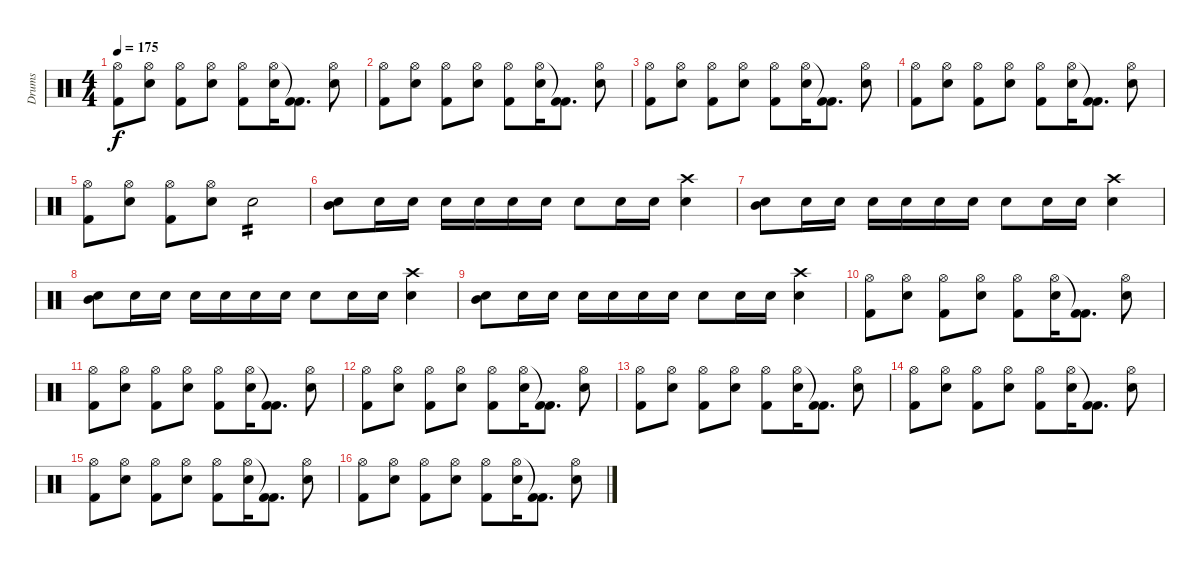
\track ("Drums" "Drums") {instrument percussion}
\staff {score}
\articulation defaults
\ts (4 4)
\tempo 175
\clef neutral
\ks c
("Hi-Hat (open)" "Kick (hit) 2").8{dy f} ("Hi-Hat (open)" "Electric Snare (hit)").8 ("Hi-Hat (open)" "Kick (hit) 2").8 ("Hi-Hat (open)" "Electric Snare (hit)").8 ("Hi-Hat (open)" "Kick (hit) 2").8 ("Hi-Hat (open)" "Electric Snare (hit)").16 ("Kick (hit) 2"{t} "Kick (hit) 2").8{d} ("Hi-Hat (open)" "Electric Snare (hit)").8 |
("Hi-Hat (open)" "Kick (hit) 2").8 ("Hi-Hat (open)" "Electric Snare (hit)").8 ("Hi-Hat (open)" "Kick (hit) 2").8 ("Hi-Hat (open)" "Electric Snare (hit)").8 ("Hi-Hat (open)" "Kick (hit) 2").8 ("Hi-Hat (open)" "Electric Snare (hit)").16 ("Kick (hit) 2"{t} "Kick (hit) 2").8{d} ("Hi-Hat (open)" "Electric Snare (hit)").8 |
("Hi-Hat (open)" "Kick (hit) 2").8 ("Hi-Hat (open)" "Electric Snare (hit)").8 ("Hi-Hat (open)" "Kick (hit) 2").8 ("Hi-Hat (open)" "Electric Snare (hit)").8 ("Hi-Hat (open)" "Kick (hit) 2").8 ("Hi-Hat (open)" "Electric Snare (hit)").16 ("Kick (hit) 2"{t} "Kick (hit) 2").8{d} ("Hi-Hat (open)" "Electric Snare (hit)").8 |
("Hi-Hat (open)" "Kick (hit) 2").8 ("Hi-Hat (open)" "Electric Snare (hit)").8 ("Hi-Hat (open)" "Kick (hit) 2").8 ("Hi-Hat (open)" "Electric Snare (hit)").8 ("Hi-Hat (open)" "Kick (hit) 2").8 ("Hi-Hat (open)" "Electric Snare (hit)").16 ("Kick (hit) 2"{t} "Kick (hit) 2").8{d} ("Hi-Hat (open)" "Electric Snare (hit)").8 |
("Hi-Hat (open)" "Kick (hit) 2").8 ("Hi-Hat (open)" "Electric Snare (hit)").8 ("Hi-Hat (open)" "Kick (hit) 2").8 ("Hi-Hat (open)" "Electric Snare (hit)").8 "Electric Snare (hit)".2{tp 2} |
("Mid Tom (hit)" "Electric Snare (hit)").8 "Electric Snare (hit)".16 "Electric Snare (hit)".16 "Electric Snare (hit)".16 "Electric Snare (hit)".16 "Electric Snare (hit)".16 "Electric Snare (hit)".16 "Electric Snare (hit)".8 "Electric Snare (hit)".16 "Electric Snare (hit)".16 ("Crash high (hit)" "Electric Snare (hit)").4 |
("Mid Tom (hit)" "Electric Snare (hit)").8 "Electric Snare (hit)".16 "Electric Snare (hit)".16 "Electric Snare (hit)".16 "Electric Snare (hit)".16 "Electric Snare (hit)".16 "Electric Snare (hit)".16 "Electric Snare (hit)".8 "Electric Snare (hit)".16 "Electric Snare (hit)".16 ("Crash high (hit)" "Electric Snare (hit)").4 |
("Mid Tom (hit)" "Electric Snare (hit)").8 "Electric Snare (hit)".16 "Electric Snare (hit)".16 "Electric Snare (hit)".16 "Electric Snare (hit)".16 "Electric Snare (hit)".16 "Electric Snare (hit)".16 "Electric Snare (hit)".8 "Electric Snare (hit)".16 "Electric Snare (hit)".16 ("Crash high (hit)" "Electric Snare (hit)").4 |
("Mid Tom (hit)" "Electric Snare (hit)").8 "Electric Snare (hit)".16 "Electric Snare (hit)".16 "Electric Snare (hit)".16 "Electric Snare (hit)".16 "Electric Snare (hit)".16 "Electric Snare (hit)".16 "Electric Snare (hit)".8 "Electric Snare (hit)".16 "Electric Snare (hit)".16 ("Crash high (hit)" "Electric Snare (hit)").4 |
("Hi-Hat (open)" "Kick (hit) 2").8 ("Hi-Hat (open)" "Electric Snare (hit)").8 ("Hi-Hat (open)" "Kick (hit) 2").8 ("Hi-Hat (open)" "Electric Snare (hit)").8 ("Hi-Hat (open)" "Kick (hit) 2").8 ("Hi-Hat (open)" "Electric Snare (hit)").16 ("Kick (hit) 2"{t} "Kick (hit) 2").8{d} ("Hi-Hat (open)" "Electric Snare (hit)").8 |
("Hi-Hat (open)" "Kick (hit) 2").8 ("Hi-Hat (open)" "Electric Snare (hit)").8 ("Hi-Hat (open)" "Kick (hit) 2").8 ("Hi-Hat (open)" "Electric Snare (hit)").8 ("Hi-Hat (open)" "Kick (hit) 2").8 ("Hi-Hat (open)" "Electric Snare (hit)").16 ("Kick (hit) 2"{t} "Kick (hit) 2").8{d} ("Hi-Hat (open)" "Electric Snare (hit)").8 |
("Hi-Hat (open)" "Kick (hit) 2").8 ("Hi-Hat (open)" "Electric Snare (hit)").8 ("Hi-Hat (open)" "Kick (hit) 2").8 ("Hi-Hat (open)" "Electric Snare (hit)").8 ("Hi-Hat (open)" "Kick (hit) 2").8 ("Hi-Hat (open)" "Electric Snare (hit)").16 ("Kick (hit) 2"{t} "Kick (hit) 2").8{d} ("Hi-Hat (open)" "Electric Snare (hit)").8 |
("Hi-Hat (open)" "Kick (hit) 2").8 ("Hi-Hat (open)" "Electric Snare (hit)").8 ("Hi-Hat (open)" "Kick (hit) 2").8 ("Hi-Hat (open)" "Electric Snare (hit)").8 ("Hi-Hat (open)" "Kick (hit) 2").8 ("Hi-Hat (open)" "Electric Snare (hit)").16 ("Kick (hit) 2"{t} "Kick (hit) 2").8{d} ("Hi-Hat (open)" "Electric Snare (hit)").8 |
("Hi-Hat (open)" "Kick (hit) 2").8 ("Hi-Hat (open)" "Electric Snare (hit)").8 ("Hi-Hat (open)" "Kick (hit) 2").8 ("Hi-Hat (open)" "Electric Snare (hit)").8 ("Hi-Hat (open)" "Kick (hit) 2").8 ("Hi-Hat (open)" "Electric Snare (hit)").16 ("Kick (hit) 2"{t} "Kick (hit) 2").8{d} ("Hi-Hat (open)" "Electric Snare (hit)").8 |
("Hi-Hat (open)" "Kick (hit) 2").8 ("Hi-Hat (open)" "Electric Snare (hit)").8 ("Hi-Hat (open)" "Kick (hit) 2").8 ("Hi-Hat (open)" "Electric Snare (hit)").8 ("Hi-Hat (open)" "Kick (hit) 2").8 ("Hi-Hat (open)" "Electric Snare (hit)").16 ("Kick (hit) 2"{t} "Kick (hit) 2").8{d} ("Hi-Hat (open)" "Electric Snare (hit)").8 |
("Hi-Hat (open)" "Kick (hit) 2").8 ("Hi-Hat (open)" "Electric Snare (hit)").8 ("Hi-Hat (open)" "Kick (hit) 2").8 ("Hi-Hat (open)" "Electric Snare (hit)").8 ("Hi-Hat (open)" "Kick (hit) 2").8 ("Hi-Hat (open)" "Electric Snare (hit)").16 ("Kick (hit) 2"{t} "Kick (hit) 2").8{d} ("Hi-Hat (open)" "Electric Snare (hit)").8
